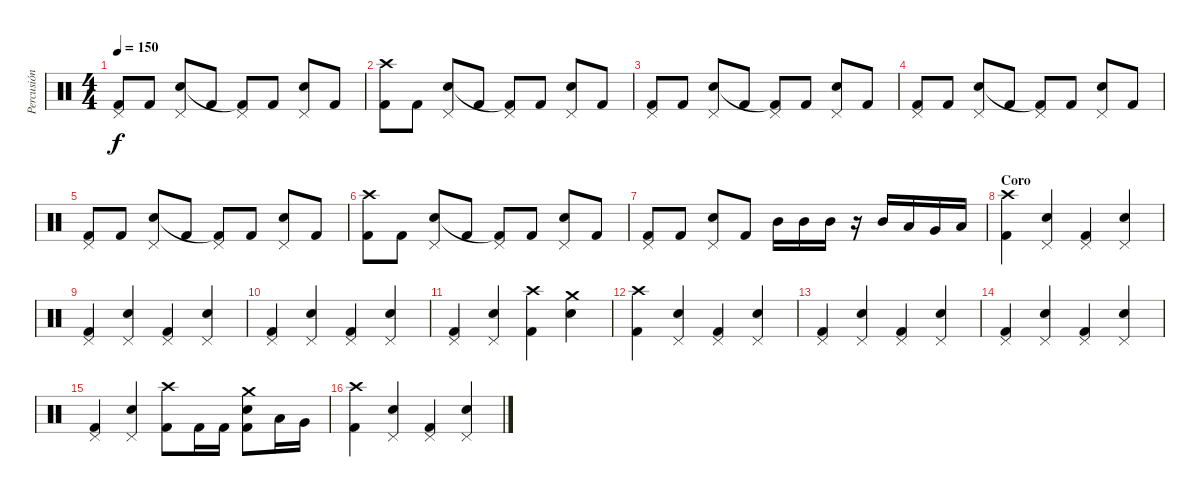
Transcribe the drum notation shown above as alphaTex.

\track ("Percusión" "Percusión") {instrument percussion}
\staff {score}
\articulation defaults
\ts (4 4)
\tempo 150
\clef neutral
\ks c
("Pedal Hi-Hat (hit)" "Kick (hit) 2").8{dy f} "Kick (hit) 2".8 ("Pedal Hi-Hat (hit)" "Electric Snare (hit)").8 "Kick (hit) 2".8 ("Pedal Hi-Hat (hit)" "Kick (hit) 2"{t}).8 "Kick (hit) 2".8 ("Pedal Hi-Hat (hit)" "Electric Snare (hit)").8 "Kick (hit) 2".8 |
("Crash high (hit)" "Kick (hit) 2").8 "Kick (hit) 2".8 ("Pedal Hi-Hat (hit)" "Electric Snare (hit)").8 "Kick (hit) 2".8 ("Pedal Hi-Hat (hit)" "Kick (hit) 2"{t}).8 "Kick (hit) 2".8 ("Pedal Hi-Hat (hit)" "Electric Snare (hit)").8 "Kick (hit) 2".8 |
("Pedal Hi-Hat (hit)" "Kick (hit) 2").8 "Kick (hit) 2".8 ("Pedal Hi-Hat (hit)" "Electric Snare (hit)").8 "Kick (hit) 2".8 ("Pedal Hi-Hat (hit)" "Kick (hit) 2"{t}).8 "Kick (hit) 2".8 ("Pedal Hi-Hat (hit)" "Electric Snare (hit)").8 "Kick (hit) 2".8 |
("Pedal Hi-Hat (hit)" "Kick (hit) 2").8 "Kick (hit) 2".8 ("Pedal Hi-Hat (hit)" "Electric Snare (hit)").8 "Kick (hit) 2".8 ("Pedal Hi-Hat (hit)" "Kick (hit) 2"{t}).8 "Kick (hit) 2".8 ("Pedal Hi-Hat (hit)" "Electric Snare (hit)").8 "Kick (hit) 2".8 |
("Pedal Hi-Hat (hit)" "Kick (hit) 2").8 "Kick (hit) 2".8 ("Pedal Hi-Hat (hit)" "Electric Snare (hit)").8 "Kick (hit) 2".8 ("Pedal Hi-Hat (hit)" "Kick (hit) 2"{t}).8 "Kick (hit) 2".8 ("Pedal Hi-Hat (hit)" "Electric Snare (hit)").8 "Kick (hit) 2".8 |
("Crash high (hit)" "Kick (hit) 2").8 "Kick (hit) 2".8 ("Pedal Hi-Hat (hit)" "Electric Snare (hit)").8 "Kick (hit) 2".8 ("Pedal Hi-Hat (hit)" "Kick (hit) 2"{t}).8 "Kick (hit) 2".8 ("Pedal Hi-Hat (hit)" "Electric Snare (hit)").8 "Kick (hit) 2".8 |
("Pedal Hi-Hat (hit)" "Kick (hit) 2").8 "Kick (hit) 2".8 ("Pedal Hi-Hat (hit)" "Electric Snare (hit)").8 "Kick (hit) 2".8 "Mid Tom (hit)".16 "Mid Tom (hit)".16 "Mid Tom (hit)".16 r.16 "Mid Tom (hit)".16 "Low Tom (hit)".16 "Very Low Tom (hit)".16 "Low Floor Tom (hit)".16 |
\section ("" "Coro")
("Crash high (hit)" "Kick (hit) 2").4 ("Pedal Hi-Hat (hit)" "Electric Snare (hit)").4 ("Pedal Hi-Hat (hit)" "Kick (hit) 2").4 ("Pedal Hi-Hat (hit)" "Electric Snare (hit)").4 |
("Pedal Hi-Hat (hit)" "Kick (hit) 2").4 ("Pedal Hi-Hat (hit)" "Electric Snare (hit)").4 ("Pedal Hi-Hat (hit)" "Kick (hit) 2").4 ("Pedal Hi-Hat (hit)" "Electric Snare (hit)").4 |
("Pedal Hi-Hat (hit)" "Kick (hit) 2").4 ("Pedal Hi-Hat (hit)" "Electric Snare (hit)").4 ("Pedal Hi-Hat (hit)" "Kick (hit) 2").4 ("Pedal Hi-Hat (hit)" "Electric Snare (hit)").4 |
("Pedal Hi-Hat (hit)" "Kick (hit) 2").4 ("Pedal Hi-Hat (hit)" "Electric Snare (hit)").4 ("Crash high (hit)" "Kick (hit) 2").4 ("Crash medium (hit)" "Electric Snare (hit)").4 |
("Crash high (hit)" "Kick (hit) 2").4 ("Pedal Hi-Hat (hit)" "Electric Snare (hit)").4 ("Pedal Hi-Hat (hit)" "Kick (hit) 2").4 ("Pedal Hi-Hat (hit)" "Electric Snare (hit)").4 |
("Pedal Hi-Hat (hit)" "Kick (hit) 2").4 ("Pedal Hi-Hat (hit)" "Electric Snare (hit)").4 ("Pedal Hi-Hat (hit)" "Kick (hit) 2").4 ("Pedal Hi-Hat (hit)" "Electric Snare (hit)").4 |
("Pedal Hi-Hat (hit)" "Kick (hit) 2").4 ("Pedal Hi-Hat (hit)" "Electric Snare (hit)").4 ("Pedal Hi-Hat (hit)" "Kick (hit) 2").4 ("Pedal Hi-Hat (hit)" "Electric Snare (hit)").4 |
("Pedal Hi-Hat (hit)" "Kick (hit) 2").4 ("Pedal Hi-Hat (hit)" "Electric Snare (hit)").4 ("Crash high (hit)" "Kick (hit) 2").8 "Kick (hit) 2".16 "Kick (hit) 2".16 ("Crash medium (hit)" "Electric Snare (hit)" "Kick (hit) 2").8 "Low Tom (hit)".16 "Very Low Tom (hit)".16 |
("Crash high (hit)" "Kick (hit) 2").4 ("Pedal Hi-Hat (hit)" "Electric Snare (hit)").4 ("Pedal Hi-Hat (hit)" "Kick (hit) 2").4 ("Pedal Hi-Hat (hit)" "Electric Snare (hit)").4
